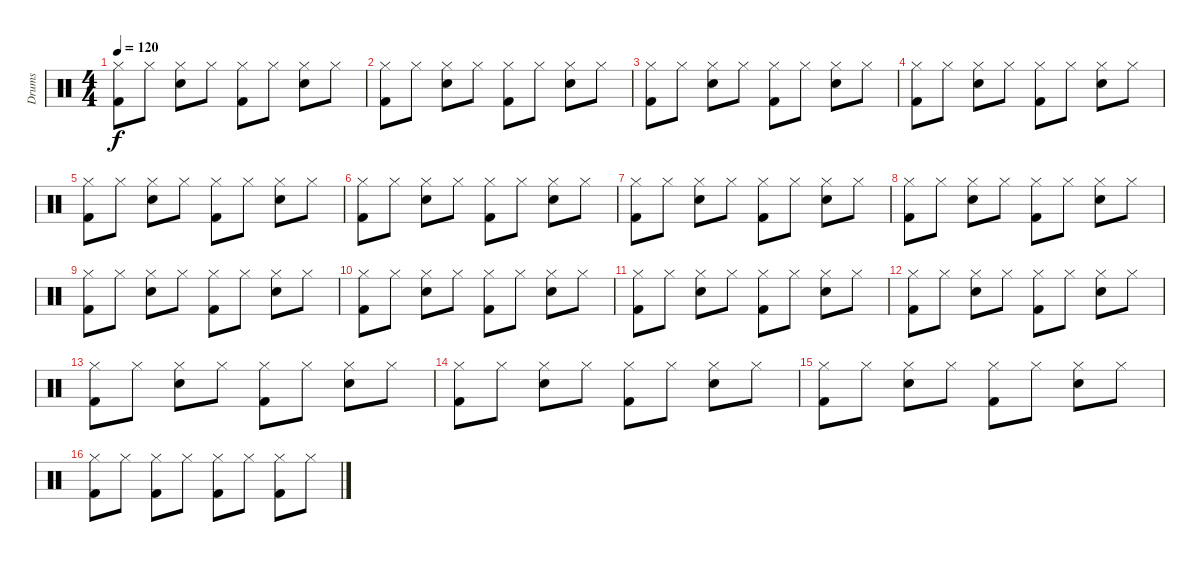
\track ("Drums" "Drums") {instrument percussion}
\staff {score}
\articulation defaults
\ts (4 4)
\tempo 120
\clef neutral
\ks c
("Hi-Hat (closed)" "Kick (hit) 2").8{dy f} "Hi-Hat (closed)".8 ("Hi-Hat (closed)" "Snare (hit) 2").8 "Hi-Hat (closed)".8 ("Hi-Hat (closed)" "Kick (hit) 2").8 "Hi-Hat (closed)".8 ("Hi-Hat (closed)" "Snare (hit) 2").8 "Hi-Hat (closed)".8 |
("Hi-Hat (closed)" "Kick (hit) 2").8 "Hi-Hat (closed)".8 ("Hi-Hat (closed)" "Snare (hit) 2").8 "Hi-Hat (closed)".8 ("Hi-Hat (closed)" "Kick (hit) 2").8 "Hi-Hat (closed)".8 ("Hi-Hat (closed)" "Snare (hit) 2").8 "Hi-Hat (closed)".8 |
("Hi-Hat (closed)" "Kick (hit) 2").8 "Hi-Hat (closed)".8 ("Hi-Hat (closed)" "Snare (hit) 2").8 "Hi-Hat (closed)".8 ("Hi-Hat (closed)" "Kick (hit) 2").8 "Hi-Hat (closed)".8 ("Hi-Hat (closed)" "Snare (hit) 2").8 "Hi-Hat (closed)".8 |
("Hi-Hat (closed)" "Kick (hit) 2").8 "Hi-Hat (closed)".8 ("Hi-Hat (closed)" "Snare (hit) 2").8 "Hi-Hat (closed)".8 ("Hi-Hat (closed)" "Kick (hit) 2").8 "Hi-Hat (closed)".8 ("Hi-Hat (closed)" "Snare (hit) 2").8 "Hi-Hat (closed)".8 |
("Hi-Hat (closed)" "Kick (hit) 2").8 "Hi-Hat (closed)".8 ("Hi-Hat (closed)" "Snare (hit) 2").8 "Hi-Hat (closed)".8 ("Hi-Hat (closed)" "Kick (hit) 2").8 "Hi-Hat (closed)".8 ("Hi-Hat (closed)" "Snare (hit) 2").8 "Hi-Hat (closed)".8 |
("Hi-Hat (closed)" "Kick (hit) 2").8 "Hi-Hat (closed)".8 ("Hi-Hat (closed)" "Snare (hit) 2").8 "Hi-Hat (closed)".8 ("Hi-Hat (closed)" "Kick (hit) 2").8 "Hi-Hat (closed)".8 ("Hi-Hat (closed)" "Snare (hit) 2").8 "Hi-Hat (closed)".8 |
("Hi-Hat (closed)" "Kick (hit) 2").8 "Hi-Hat (closed)".8 ("Hi-Hat (closed)" "Snare (hit) 2").8 "Hi-Hat (closed)".8 ("Hi-Hat (closed)" "Kick (hit) 2").8 "Hi-Hat (closed)".8 ("Hi-Hat (closed)" "Snare (hit) 2").8 "Hi-Hat (closed)".8 |
("Hi-Hat (closed)" "Kick (hit) 2").8 "Hi-Hat (closed)".8 ("Hi-Hat (closed)" "Snare (hit) 2").8 "Hi-Hat (closed)".8 ("Hi-Hat (closed)" "Kick (hit) 2").8 "Hi-Hat (closed)".8 ("Hi-Hat (closed)" "Snare (hit) 2").8 "Hi-Hat (closed)".8 |
("Hi-Hat (closed)" "Kick (hit) 2").8 "Hi-Hat (closed)".8 ("Hi-Hat (closed)" "Snare (hit) 2").8 "Hi-Hat (closed)".8 ("Hi-Hat (closed)" "Kick (hit) 2").8 "Hi-Hat (closed)".8 ("Hi-Hat (closed)" "Snare (hit) 2").8 "Hi-Hat (closed)".8 |
("Hi-Hat (closed)" "Kick (hit) 2").8 "Hi-Hat (closed)".8 ("Hi-Hat (closed)" "Snare (hit) 2").8 "Hi-Hat (closed)".8 ("Hi-Hat (closed)" "Kick (hit) 2").8 "Hi-Hat (closed)".8 ("Hi-Hat (closed)" "Snare (hit) 2").8 "Hi-Hat (closed)".8 |
("Hi-Hat (closed)" "Kick (hit) 2").8 "Hi-Hat (closed)".8 ("Hi-Hat (closed)" "Snare (hit) 2").8 "Hi-Hat (closed)".8 ("Hi-Hat (closed)" "Kick (hit) 2").8 "Hi-Hat (closed)".8 ("Hi-Hat (closed)" "Snare (hit) 2").8 "Hi-Hat (closed)".8 |
("Hi-Hat (closed)" "Kick (hit) 2").8 "Hi-Hat (closed)".8 ("Hi-Hat (closed)" "Snare (hit) 2").8 "Hi-Hat (closed)".8 ("Hi-Hat (closed)" "Kick (hit) 2").8 "Hi-Hat (closed)".8 ("Hi-Hat (closed)" "Snare (hit) 2").8 "Hi-Hat (closed)".8 |
("Hi-Hat (closed)" "Kick (hit) 2").8 "Hi-Hat (closed)".8 ("Hi-Hat (closed)" "Snare (hit) 2").8 "Hi-Hat (closed)".8 ("Hi-Hat (closed)" "Kick (hit) 2").8 "Hi-Hat (closed)".8 ("Hi-Hat (closed)" "Snare (hit) 2").8 "Hi-Hat (closed)".8 |
("Hi-Hat (closed)" "Kick (hit) 2").8 "Hi-Hat (closed)".8 ("Hi-Hat (closed)" "Snare (hit) 2").8 "Hi-Hat (closed)".8 ("Hi-Hat (closed)" "Kick (hit) 2").8 "Hi-Hat (closed)".8 ("Hi-Hat (closed)" "Snare (hit) 2").8 "Hi-Hat (closed)".8 |
("Hi-Hat (closed)" "Kick (hit) 2").8 "Hi-Hat (closed)".8 ("Hi-Hat (closed)" "Snare (hit) 2").8 "Hi-Hat (closed)".8 ("Hi-Hat (closed)" "Kick (hit) 2").8 "Hi-Hat (closed)".8 ("Hi-Hat (closed)" "Snare (hit) 2").8 "Hi-Hat (closed)".8 |
("Hi-Hat (closed)" "Kick (hit) 2").8 "Hi-Hat (closed)".8 ("Hi-Hat (closed)" "Kick (hit) 2").8 "Hi-Hat (closed)".8 ("Hi-Hat (closed)" "Kick (hit) 2").8 "Hi-Hat (closed)".8 ("Hi-Hat (closed)" "Kick (hit) 2").8 "Hi-Hat (closed)".8
